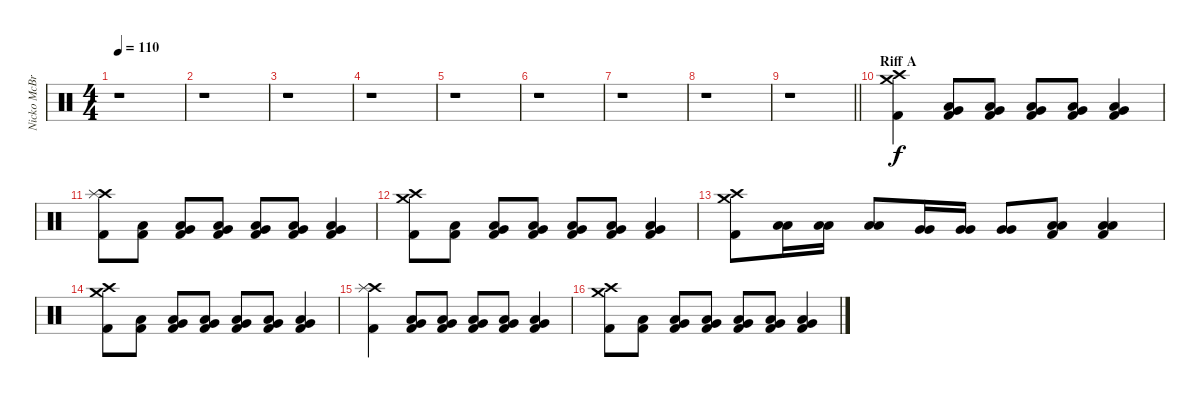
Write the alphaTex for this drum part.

\track ("Nicko McBrain" "Nicko McBr") {instrument percussion}
\staff {score}
\articulation defaults
\ts (4 4)
\tempo 110
\clef neutral
\ks c
r.1{dy f} |
r.1 |
r.1 |
r.1 |
r.1 |
r.1 |
r.1 |
r.1 |
\barLineRight lightlight
r.1 |
\section ("" "Riff A")
("Kick (hit) 2" "Crash high (hit)" "Crash medium (hit)").4 ("Very Low Tom (hit)" "Low Tom (hit)" "Kick (hit) 2").8 ("Very Low Tom (hit)" "Low Tom (hit)" "Kick (hit) 2").8 ("Very Low Tom (hit)" "Low Tom (hit)" "Kick (hit) 2").8 ("Very Low Tom (hit)" "Low Tom (hit)" "Kick (hit) 2").8 ("Very Low Tom (hit)" "Low Tom (hit)" "Kick (hit) 2").4 |
("Kick (hit) 2" "Crash high (hit)" "Splash (hit)").8 ("Low Tom (hit)" "Kick (hit) 2").8 ("Very Low Tom (hit)" "Low Tom (hit)" "Kick (hit) 2").8 ("Very Low Tom (hit)" "Low Tom (hit)" "Kick (hit) 2").8 ("Very Low Tom (hit)" "Low Tom (hit)" "Kick (hit) 2").8 ("Very Low Tom (hit)" "Low Tom (hit)" "Kick (hit) 2").8 ("Very Low Tom (hit)" "Low Tom (hit)" "Kick (hit) 2").4 |
("Kick (hit) 2" "Crash high (hit)" "Crash medium (hit)").8 ("Low Tom (hit)" "Kick (hit) 2").8 ("Very Low Tom (hit)" "Low Tom (hit)" "Kick (hit) 2").8 ("Very Low Tom (hit)" "Low Tom (hit)" "Kick (hit) 2").8 ("Very Low Tom (hit)" "Low Tom (hit)" "Kick (hit) 2").8 ("Very Low Tom (hit)" "Low Tom (hit)" "Kick (hit) 2").8 ("Very Low Tom (hit)" "Low Tom (hit)" "Kick (hit) 2").4 |
("Kick (hit) 2" "Crash high (hit)" "Crash medium (hit)").8 ("Low Tom (hit)" "Low Tom (hit)").16 ("Low Tom (hit)" "Low Tom (hit)").16 ("Low Tom (hit)" "Low Tom (hit)").8 ("Very Low Tom (hit)" "Very Low Tom (hit)").16 ("Very Low Tom (hit)" "Very Low Tom (hit)").16 ("Very Low Tom (hit)" "Very Low Tom (hit)").8 ("Low Floor Tom (hit)" "Low Floor Tom (hit)" "Kick (hit) 2").8 ("Low Floor Tom (hit)" "Low Floor Tom (hit)" "Kick (hit) 2").4 |
("Kick (hit) 2" "Crash high (hit)" "Crash medium (hit)").8 ("Low Tom (hit)" "Kick (hit) 2").8 ("Very Low Tom (hit)" "Low Tom (hit)" "Kick (hit) 2").8 ("Very Low Tom (hit)" "Low Tom (hit)" "Kick (hit) 2").8 ("Very Low Tom (hit)" "Low Tom (hit)" "Kick (hit) 2").8 ("Very Low Tom (hit)" "Low Tom (hit)" "Kick (hit) 2").8 ("Very Low Tom (hit)" "Low Tom (hit)" "Kick (hit) 2").4 |
("Kick (hit) 2" "Crash high (hit)" "Splash (hit)").4 ("Very Low Tom (hit)" "Low Tom (hit)" "Kick (hit) 2").8 ("Very Low Tom (hit)" "Low Tom (hit)" "Kick (hit) 2").8 ("Very Low Tom (hit)" "Low Tom (hit)" "Kick (hit) 2").8 ("Very Low Tom (hit)" "Low Tom (hit)" "Kick (hit) 2").8 ("Very Low Tom (hit)" "Low Tom (hit)" "Kick (hit) 2").4 |
("Kick (hit) 2" "Crash high (hit)" "Crash medium (hit)").8 ("Low Tom (hit)" "Kick (hit) 2").8 ("Very Low Tom (hit)" "Low Tom (hit)" "Kick (hit) 2").8 ("Very Low Tom (hit)" "Low Tom (hit)" "Kick (hit) 2").8 ("Very Low Tom (hit)" "Low Tom (hit)" "Kick (hit) 2").8 ("Very Low Tom (hit)" "Low Tom (hit)" "Kick (hit) 2").8 ("Very Low Tom (hit)" "Low Tom (hit)" "Kick (hit) 2").4
